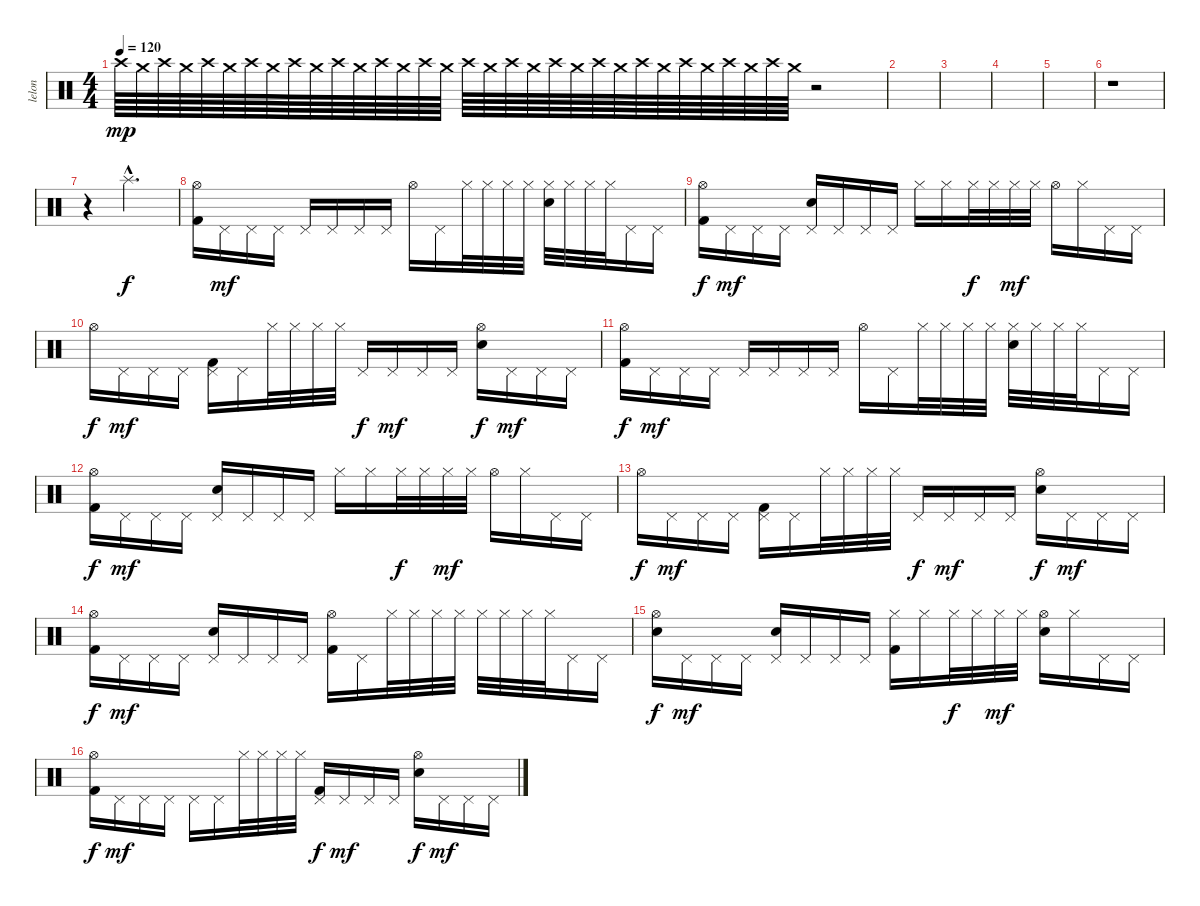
\track ("lelon" "lelon") {instrument percussion}
\staff {score}
\articulation defaults
\ts (4 4)
\tempo 120
\clef neutral
\ks c "Crash high (hit)".64{dy mp} "Crash medium (hit)".64 "Crash high (hit)".64 "Crash medium (hit)".64 "Crash high (hit)".64 "Crash medium (hit)".64 "Crash high (hit)".64 "Crash medium (hit)".64 "Crash high (hit)".64 "Crash medium (hit)".64 "Crash high (hit)".64 "Crash medium (hit)".64 "Crash high (hit)".64 "Crash medium (hit)".64 "Crash high (hit)".64 "Crash medium (hit)".64 "Crash high (hit)".64 "Crash medium (hit)".64 "Crash high (hit)".64 "Crash medium (hit)".64 "Crash high (hit)".64 "Crash medium (hit)".64 "Crash high (hit)".64 "Crash medium (hit)".64 "Crash high (hit)".64 "Crash medium (hit)".64 "Crash high (hit)".64 "Crash medium (hit)".64 "Crash high (hit)".64 "Crash medium (hit)".64 "Crash high (hit)".64 "Crash medium (hit)".64
r.2 |
|
|
|
|
r.1 |
r.4 "Splash (hit)"{hac}.2{d dy f} |
("Hi-Hat (open)" "Kick (hit) 2").16 "Pedal Hi-Hat (hit)".16{dy mf} "Pedal Hi-Hat (hit)".16 "Pedal Hi-Hat (hit)".16 "Pedal Hi-Hat (hit)".16 "Pedal Hi-Hat (hit)".16 "Pedal Hi-Hat (hit)".16 "Pedal Hi-Hat (hit)".16 "Hi-Hat (open)".16 "Pedal Hi-Hat (hit)".16 "Hi-Hat (closed)".32 "Hi-Hat (closed)".32 "Hi-Hat (closed)".32 "Hi-Hat (closed)".32 ("Hi-Hat (closed)" "Electric Snare (hit)").32 "Hi-Hat (closed)".32 "Hi-Hat (closed)".32 "Hi-Hat (closed)".32 "Pedal Hi-Hat (hit)".16 "Pedal Hi-Hat (hit)".16 |
("Hi-Hat (open)" "Kick (hit) 2").16{dy f} "Pedal Hi-Hat (hit)".16{dy mf} "Pedal Hi-Hat (hit)".16 "Pedal Hi-Hat (hit)".16 ("Pedal Hi-Hat (hit)" "Electric Snare (hit)").16 "Pedal Hi-Hat (hit)".16 "Pedal Hi-Hat (hit)".16 "Pedal Hi-Hat (hit)".16 "Hi-Hat (closed)".16 "Hi-Hat (closed)".16 "Hi-Hat (closed)".32{dy f} "Hi-Hat (closed)".32 "Hi-Hat (closed)".32{dy mf} "Hi-Hat (closed)".32 "Hi-Hat (open)".16 "Hi-Hat (closed)".16 "Pedal Hi-Hat (hit)".16 "Pedal Hi-Hat (hit)".16 |
"Hi-Hat (open)".16{dy f} "Pedal Hi-Hat (hit)".16{dy mf} "Pedal Hi-Hat (hit)".16 "Pedal Hi-Hat (hit)".16 ("Pedal Hi-Hat (hit)" "Kick (hit) 2").16 "Pedal Hi-Hat (hit)".16 "Hi-Hat (closed)".32 "Hi-Hat (closed)".32 "Hi-Hat (closed)".32 "Hi-Hat (closed)".32 "Pedal Hi-Hat (hit)".16{dy f} "Pedal Hi-Hat (hit)".16{dy mf} "Pedal Hi-Hat (hit)".16 "Pedal Hi-Hat (hit)".16 ("Hi-Hat (open)" "Electric Snare (hit)").16{dy f} "Pedal Hi-Hat (hit)".16{dy mf} "Pedal Hi-Hat (hit)".16 "Pedal Hi-Hat (hit)".16 |
("Hi-Hat (open)" "Kick (hit) 2").16{dy f} "Pedal Hi-Hat (hit)".16{dy mf} "Pedal Hi-Hat (hit)".16 "Pedal Hi-Hat (hit)".16 "Pedal Hi-Hat (hit)".16 "Pedal Hi-Hat (hit)".16 "Pedal Hi-Hat (hit)".16 "Pedal Hi-Hat (hit)".16 "Hi-Hat (open)".16 "Pedal Hi-Hat (hit)".16 "Hi-Hat (closed)".32 "Hi-Hat (closed)".32 "Hi-Hat (closed)".32 "Hi-Hat (closed)".32 ("Hi-Hat (closed)" "Electric Snare (hit)").32 "Hi-Hat (closed)".32 "Hi-Hat (closed)".32 "Hi-Hat (closed)".32 "Pedal Hi-Hat (hit)".16 "Pedal Hi-Hat (hit)".16 |
("Hi-Hat (open)" "Kick (hit) 2").16{dy f} "Pedal Hi-Hat (hit)".16{dy mf} "Pedal Hi-Hat (hit)".16 "Pedal Hi-Hat (hit)".16 ("Pedal Hi-Hat (hit)" "Electric Snare (hit)").16 "Pedal Hi-Hat (hit)".16 "Pedal Hi-Hat (hit)".16 "Pedal Hi-Hat (hit)".16 "Hi-Hat (closed)".16 "Hi-Hat (closed)".16 "Hi-Hat (closed)".32{dy f} "Hi-Hat (closed)".32 "Hi-Hat (closed)".32{dy mf} "Hi-Hat (closed)".32 "Hi-Hat (open)".16 "Hi-Hat (closed)".16 "Pedal Hi-Hat (hit)".16 "Pedal Hi-Hat (hit)".16 |
"Hi-Hat (open)".16{dy f} "Pedal Hi-Hat (hit)".16{dy mf} "Pedal Hi-Hat (hit)".16 "Pedal Hi-Hat (hit)".16 ("Pedal Hi-Hat (hit)" "Kick (hit) 2").16 "Pedal Hi-Hat (hit)".16 "Hi-Hat (closed)".32 "Hi-Hat (closed)".32 "Hi-Hat (closed)".32 "Hi-Hat (closed)".32 "Pedal Hi-Hat (hit)".16{dy f} "Pedal Hi-Hat (hit)".16{dy mf} "Pedal Hi-Hat (hit)".16 "Pedal Hi-Hat (hit)".16 ("Hi-Hat (open)" "Electric Snare (hit)").16{dy f} "Pedal Hi-Hat (hit)".16{dy mf} "Pedal Hi-Hat (hit)".16 "Pedal Hi-Hat (hit)".16 |
("Hi-Hat (open)" "Kick (hit) 2").16{dy f} "Pedal Hi-Hat (hit)".16{dy mf} "Pedal Hi-Hat (hit)".16 "Pedal Hi-Hat (hit)".16 ("Pedal Hi-Hat (hit)" "Electric Snare (hit)").16 "Pedal Hi-Hat (hit)".16 "Pedal Hi-Hat (hit)".16 "Pedal Hi-Hat (hit)".16 ("Hi-Hat (open)" "Kick (hit) 2").16 "Pedal Hi-Hat (hit)".16 "Hi-Hat (closed)".32 "Hi-Hat (closed)".32 "Hi-Hat (closed)".32 "Hi-Hat (closed)".32 "Hi-Hat (closed)".32 "Hi-Hat (closed)".32 "Hi-Hat (closed)".32 "Hi-Hat (closed)".32 "Pedal Hi-Hat (hit)".16 "Pedal Hi-Hat (hit)".16 |
("Hi-Hat (open)" "Electric Snare (hit)").16{dy f} "Pedal Hi-Hat (hit)".16{dy mf} "Pedal Hi-Hat (hit)".16 "Pedal Hi-Hat (hit)".16 ("Pedal Hi-Hat (hit)" "Electric Snare (hit)").16 "Pedal Hi-Hat (hit)".16 "Pedal Hi-Hat (hit)".16 "Pedal Hi-Hat (hit)".16 ("Hi-Hat (closed)" "Kick (hit) 2").16 "Hi-Hat (closed)".16 "Hi-Hat (closed)".32{dy f} "Hi-Hat (closed)".32 "Hi-Hat (closed)".32{dy mf} "Hi-Hat (closed)".32 ("Hi-Hat (open)" "Electric Snare (hit)").16 "Hi-Hat (closed)".16 "Pedal Hi-Hat (hit)".16 "Pedal Hi-Hat (hit)".16 |
("Hi-Hat (open)" "Kick (hit) 2").16{dy f} "Pedal Hi-Hat (hit)".16{dy mf} "Pedal Hi-Hat (hit)".16 "Pedal Hi-Hat (hit)".16 "Pedal Hi-Hat (hit)".16 "Pedal Hi-Hat (hit)".16 "Hi-Hat (closed)".32 "Hi-Hat (closed)".32 "Hi-Hat (closed)".32 "Hi-Hat (closed)".32 ("Pedal Hi-Hat (hit)" "Kick (hit) 2").16{dy f} "Pedal Hi-Hat (hit)".16{dy mf} "Pedal Hi-Hat (hit)".16 "Pedal Hi-Hat (hit)".16 ("Hi-Hat (open)" "Electric Snare (hit)").16{dy f} "Pedal Hi-Hat (hit)".16{dy mf} "Pedal Hi-Hat (hit)".16 "Pedal Hi-Hat (hit)".16
